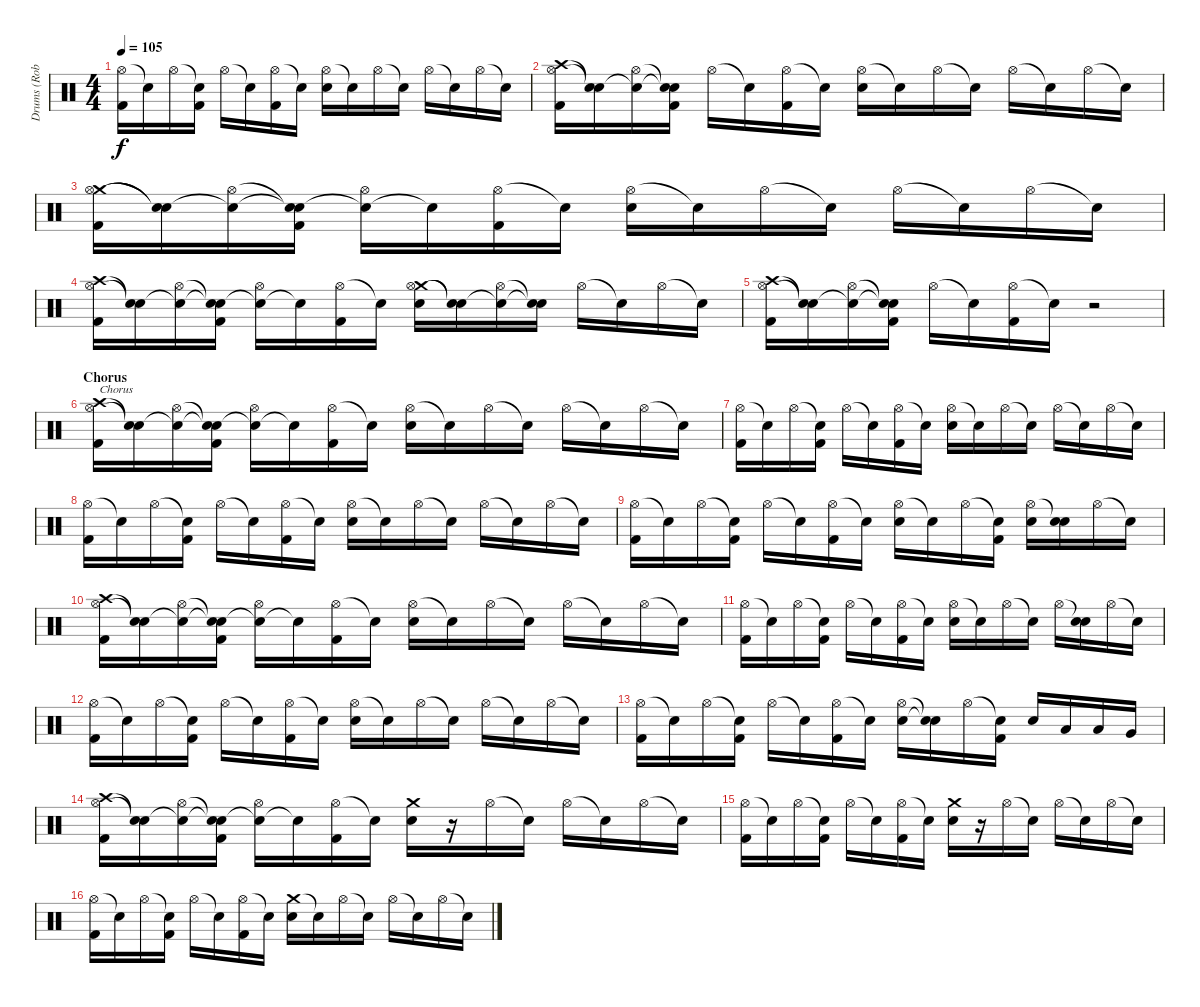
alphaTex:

\track ("Drums (Rob Bourdon)" "Drums (Rob") {instrument percussion}
\staff {score}
\articulation defaults
\ts (4 4)
\tempo 105
\clef neutral
\ks c
("Hi-Hat (open)" "Kick (hit) 2").16{dy f} "Snare (hit)"{t}.16 "Hi-Hat (open)".16 ("Snare (hit)"{t} "Kick (hit) 2").16 "Hi-Hat (open)".16 "Snare (hit)"{t}.16 ("Hi-Hat (open)" "Kick (hit) 2").16 "Snare (hit)"{t}.16 ("Hi-Hat (open)" "Electric Snare (hit)").16 "Snare (hit)"{t}.16 "Hi-Hat (open)".16 "Snare (hit)"{t}.16 "Hi-Hat (open)".16 "Snare (hit)"{t}.16 "Hi-Hat (open)".16 "Snare (hit)"{t}.16 |
("Crash high (hit)" "Hi-Hat (open)" "Kick (hit) 2").16 ("Snare (hit)"{t} "Snare (hit)"{t}).16 ("Snare (hit)"{t} "Hi-Hat (open)").16 ("Snare (hit)"{t} "Snare (hit)"{t} "Kick (hit) 2").16 "Hi-Hat (open)".16 "Snare (hit)"{t}.16 ("Hi-Hat (open)" "Kick (hit) 2").16 "Snare (hit)"{t}.16 ("Hi-Hat (open)" "Electric Snare (hit)").16 "Snare (hit)"{t}.16 "Hi-Hat (open)".16 "Snare (hit)"{t}.16 "Hi-Hat (open)".16 "Snare (hit)"{t}.16 "Hi-Hat (open)".16 "Snare (hit)"{t}.16 |
("Crash medium (hit)" "Hi-Hat (open)" "Kick (hit) 2").16 ("Snare (hit)"{t} "Snare (hit)"{t}).16 ("Snare (hit)"{t} "Hi-Hat (open)").16 ("Snare (hit)"{t} "Snare (hit)"{t} "Kick (hit) 2").16 ("Snare (hit)"{t} "Hi-Hat (open)").16 "Snare (hit)"{t}.16 ("Hi-Hat (open)" "Kick (hit) 2").16 "Snare (hit)"{t}.16 ("Hi-Hat (open)" "Electric Snare (hit)").16 "Snare (hit)"{t}.16 "Hi-Hat (open)".16 "Snare (hit)"{t}.16 "Hi-Hat (open)".16 "Snare (hit)"{t}.16 "Hi-Hat (open)".16 "Snare (hit)"{t}.16 |
("Crash high (hit)" "Hi-Hat (open)" "Kick (hit) 2").16 ("Snare (hit)"{t} "Snare (hit)"{t}).16 ("Snare (hit)"{t} "Hi-Hat (open)").16 ("Snare (hit)"{t} "Snare (hit)"{t} "Kick (hit) 2").16 ("Snare (hit)"{t} "Hi-Hat (open)").16 "Snare (hit)"{t}.16 ("Hi-Hat (open)" "Kick (hit) 2").16 "Snare (hit)"{t}.16 ("Crash medium (hit)" "Hi-Hat (open)" "Electric Snare (hit)").16 ("Snare (hit)"{t} "Snare (hit)"{t}).16 ("Snare (hit)"{t} "Hi-Hat (open)").16 ("Snare (hit)"{t} "Snare (hit)"{t}).16 "Hi-Hat (open)".16 "Snare (hit)"{t}.16 "Hi-Hat (open)".16 "Snare (hit)"{t}.16 |
("Crash high (hit)" "Hi-Hat (open)" "Kick (hit) 2").16 ("Snare (hit)"{t} "Snare (hit)"{t}).16 ("Snare (hit)"{t} "Hi-Hat (open)").16 ("Snare (hit)"{t} "Snare (hit)"{t} "Kick (hit) 2").16 "Hi-Hat (open)".16 "Snare (hit)"{t}.16 ("Hi-Hat (open)" "Kick (hit) 2").16 "Snare (hit)"{t}.16 r.2 |
\section ("" "Chorus")
("Crash high (hit)" "Hi-Hat (open)" "Kick (hit) 2").16{txt "Chorus" volume 12} ("Snare (hit)"{t} "Snare (hit)"{t}).16 ("Snare (hit)"{t} "Hi-Hat (open)").16 ("Snare (hit)"{t} "Snare (hit)"{t} "Kick (hit) 2").16 ("Snare (hit)"{t} "Hi-Hat (open)").16 "Snare (hit)"{t}.16 ("Hi-Hat (open)" "Kick (hit) 2").16 "Snare (hit)"{t}.16 ("Hi-Hat (open)" "Electric Snare (hit)").16 "Snare (hit)"{t}.16 "Hi-Hat (open)".16 "Snare (hit)"{t}.16 "Hi-Hat (open)".16 "Snare (hit)"{t}.16 "Hi-Hat (open)".16 "Snare (hit)"{t}.16 |
("Hi-Hat (open)" "Kick (hit) 2").16 "Snare (hit)"{t}.16 "Hi-Hat (open)".16 ("Snare (hit)"{t} "Kick (hit) 2").16 "Hi-Hat (open)".16 "Snare (hit)"{t}.16 ("Hi-Hat (open)" "Kick (hit) 2").16 "Snare (hit)"{t}.16 ("Hi-Hat (open)" "Electric Snare (hit)").16 "Snare (hit)"{t}.16 "Hi-Hat (open)".16 "Snare (hit)"{t}.16 "Hi-Hat (open)".16 "Snare (hit)"{t}.16 "Hi-Hat (open)".16 "Snare (hit)"{t}.16 |
("Hi-Hat (open)" "Kick (hit) 2").16 "Snare (hit)"{t}.16 "Hi-Hat (open)".16 ("Snare (hit)"{t} "Kick (hit) 2").16 "Hi-Hat (open)".16 "Snare (hit)"{t}.16 ("Hi-Hat (open)" "Kick (hit) 2").16 "Snare (hit)"{t}.16 ("Hi-Hat (open)" "Electric Snare (hit)").16 "Snare (hit)"{t}.16 "Hi-Hat (open)".16 "Snare (hit)"{t}.16 "Hi-Hat (open)".16 "Snare (hit)"{t}.16 "Hi-Hat (open)".16 "Snare (hit)"{t}.16 |
("Hi-Hat (open)" "Kick (hit) 2").16 "Snare (hit)"{t}.16 "Hi-Hat (open)".16 ("Snare (hit)"{t} "Kick (hit) 2").16 "Hi-Hat (open)".16 "Snare (hit)"{t}.16 ("Hi-Hat (open)" "Kick (hit) 2").16 "Snare (hit)"{t}.16 ("Hi-Hat (open)" "Electric Snare (hit)").16 "Snare (hit)"{t}.16 "Hi-Hat (open)".16 ("Snare (hit)"{t} "Kick (hit) 2").16 ("Hi-Hat (open)" "Electric Snare (hit)").16 ("Snare (hit)"{t} "Electric Snare (hit)").16 "Hi-Hat (open)".16 "Snare (hit)"{t}.16 |
("Crash high (hit)" "Hi-Hat (open)" "Kick (hit) 2").16{volume 12} ("Snare (hit)"{t} "Snare (hit)"{t}).16 ("Snare (hit)"{t} "Hi-Hat (open)").16 ("Snare (hit)"{t} "Snare (hit)"{t} "Kick (hit) 2").16 ("Snare (hit)"{t} "Hi-Hat (open)").16 "Snare (hit)"{t}.16 ("Hi-Hat (open)" "Kick (hit) 2").16 "Snare (hit)"{t}.16 ("Hi-Hat (open)" "Electric Snare (hit)").16 "Snare (hit)"{t}.16 "Hi-Hat (open)".16 "Snare (hit)"{t}.16 "Hi-Hat (open)".16 "Snare (hit)"{t}.16 "Hi-Hat (open)".16 "Snare (hit)"{t}.16 |
("Hi-Hat (open)" "Kick (hit) 2").16 "Snare (hit)"{t}.16 "Hi-Hat (open)".16 ("Snare (hit)"{t} "Kick (hit) 2").16 "Hi-Hat (open)".16 "Snare (hit)"{t}.16 ("Hi-Hat (open)" "Kick (hit) 2").16 "Snare (hit)"{t}.16 ("Hi-Hat (open)" "Electric Snare (hit)").16 "Snare (hit)"{t}.16 "Hi-Hat (open)".16 "Snare (hit)"{t}.16 "Hi-Hat (open)".16 ("Snare (hit)"{t} "Electric Snare (hit)").16 "Hi-Hat (open)".16 "Snare (hit)"{t}.16 |
("Hi-Hat (open)" "Kick (hit) 2").16 "Snare (hit)"{t}.16 "Hi-Hat (open)".16 ("Snare (hit)"{t} "Kick (hit) 2").16 "Hi-Hat (open)".16 "Snare (hit)"{t}.16 ("Hi-Hat (open)" "Kick (hit) 2").16 "Snare (hit)"{t}.16 ("Hi-Hat (open)" "Electric Snare (hit)").16 "Snare (hit)"{t}.16 "Hi-Hat (open)".16 "Snare (hit)"{t}.16 "Hi-Hat (open)".16 "Snare (hit)"{t}.16 "Hi-Hat (open)".16 "Snare (hit)"{t}.16 |
("Hi-Hat (open)" "Kick (hit) 2").16 "Snare (hit)"{t}.16 "Hi-Hat (open)".16 ("Snare (hit)"{t} "Kick (hit) 2").16 "Hi-Hat (open)".16 "Snare (hit)"{t}.16 ("Hi-Hat (open)" "Kick (hit) 2").16 "Snare (hit)"{t}.16 ("Hi-Hat (open)" "Electric Snare (hit)").16 ("Snare (hit)"{t} "Electric Snare (hit)"{t}).16 "Hi-Hat (open)".16 ("Snare (hit)"{t} "Kick (hit) 2").16 "Electric Snare (hit)".16 "Low Tom (hit)".16 "Low Tom (hit)".16 "Very Low Tom (hit)".16 |
("Crash high (hit)" "Hi-Hat (open)" "Kick (hit) 2").16{volume 12} ("Snare (hit)"{t} "Snare (hit)"{t}).16 ("Snare (hit)"{t} "Hi-Hat (open)").16 ("Snare (hit)"{t} "Snare (hit)"{t} "Kick (hit) 2").16 ("Snare (hit)"{t} "Hi-Hat (open)").16 "Snare (hit)"{t}.16 ("Hi-Hat (open)" "Kick (hit) 2").16 "Snare (hit)"{t}.16 ("Crash medium (hit)" "Electric Snare (hit)").16 r.16 "Hi-Hat (open)".16 "Snare (hit)"{t}.16 "Hi-Hat (open)".16 "Snare (hit)"{t}.16 "Hi-Hat (open)".16 "Snare (hit)"{t}.16 |
("Hi-Hat (open)" "Kick (hit) 2").16 "Snare (hit)"{t}.16 "Hi-Hat (open)".16 ("Snare (hit)"{t} "Kick (hit) 2").16 "Hi-Hat (open)".16 "Snare (hit)"{t}.16 ("Hi-Hat (open)" "Kick (hit) 2").16 "Snare (hit)"{t}.16 ("Crash medium (hit)" "Electric Snare (hit)").16 r.16 "Hi-Hat (open)".16 "Snare (hit)"{t}.16 "Hi-Hat (open)".16 "Snare (hit)"{t}.16 "Hi-Hat (open)".16 "Snare (hit)"{t}.16 |
("Hi-Hat (open)" "Kick (hit) 2").16 "Snare (hit)"{t}.16 "Hi-Hat (open)".16 ("Snare (hit)"{t} "Kick (hit) 2").16 "Hi-Hat (open)".16 "Snare (hit)"{t}.16 ("Hi-Hat (open)" "Kick (hit) 2").16 "Snare (hit)"{t}.16 ("Crash medium (hit)" "Electric Snare (hit)").16 "Snare (hit)"{t}.16 "Hi-Hat (open)".16 "Snare (hit)"{t}.16 "Hi-Hat (open)".16 "Snare (hit)"{t}.16 "Hi-Hat (open)".16 "Snare (hit)"{t}.16
